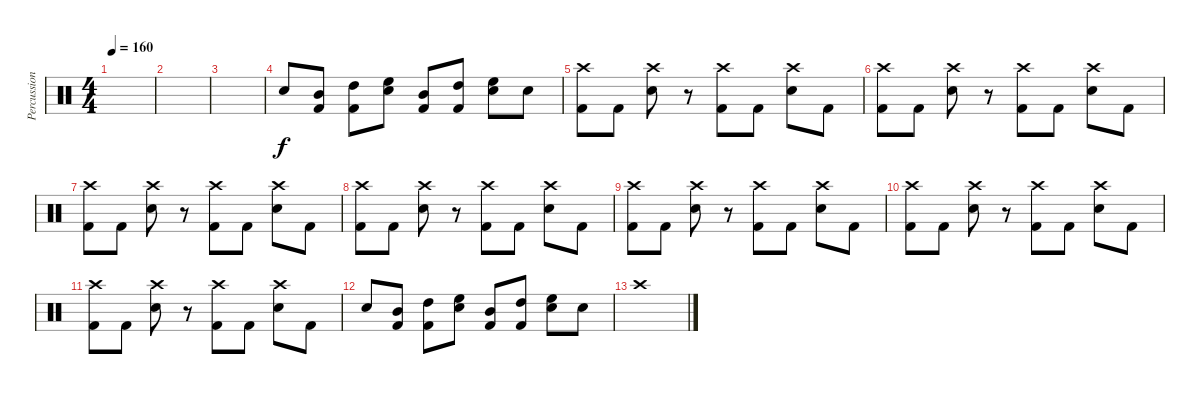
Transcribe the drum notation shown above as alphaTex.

\track ("Percussion" "Percussion") {instrument percussion}
\staff {score}
\articulation defaults
\ts (4 4)
\tempo 160
\clef neutral
\ks c
|
|
|
"Snare (hit) 2".8 ("Mid Tom (hit)" "Kick (hit) 2").8 ("High Tom (hit)" "Kick (hit) 2").8 ("High Floor Tom (hit)" "Snare (hit) 2").8 ("Mid Tom (hit)" "Kick (hit) 2").8 ("High Tom (hit)" "Kick (hit) 2").8 ("High Floor Tom (hit)" "Snare (hit) 2").8 "Snare (hit) 2".8 |
("Crash high (hit)" "Kick (hit) 2").8 "Kick (hit) 2".8 ("Crash high (hit)" "Snare (hit) 2").8 r.8 ("Crash high (hit)" "Kick (hit) 2").8 "Kick (hit) 2".8 ("Crash high (hit)" "Snare (hit) 2").8 "Kick (hit) 2".8 |
("Crash high (hit)" "Kick (hit) 2").8 "Kick (hit) 2".8 ("Crash high (hit)" "Snare (hit) 2").8 r.8 ("Crash high (hit)" "Kick (hit) 2").8 "Kick (hit) 2".8 ("Crash high (hit)" "Snare (hit) 2").8 "Kick (hit) 2".8 |
("Crash high (hit)" "Kick (hit) 2").8 "Kick (hit) 2".8 ("Crash high (hit)" "Snare (hit) 2").8 r.8 ("Crash high (hit)" "Kick (hit) 2").8 "Kick (hit) 2".8 ("Crash high (hit)" "Snare (hit) 2").8 "Kick (hit) 2".8 |
("Crash high (hit)" "Kick (hit) 2").8 "Kick (hit) 2".8 ("Crash high (hit)" "Snare (hit) 2").8 r.8 ("Crash high (hit)" "Kick (hit) 2").8 "Kick (hit) 2".8 ("Crash high (hit)" "Snare (hit) 2").8 "Kick (hit) 2".8 |
("Crash high (hit)" "Kick (hit) 2").8 "Kick (hit) 2".8 ("Crash high (hit)" "Snare (hit) 2").8 r.8 ("Crash high (hit)" "Kick (hit) 2").8 "Kick (hit) 2".8 ("Crash high (hit)" "Snare (hit) 2").8 "Kick (hit) 2".8 |
("Crash high (hit)" "Kick (hit) 2").8 "Kick (hit) 2".8 ("Crash high (hit)" "Snare (hit) 2").8 r.8 ("Crash high (hit)" "Kick (hit) 2").8 "Kick (hit) 2".8 ("Crash high (hit)" "Snare (hit) 2").8 "Kick (hit) 2".8 |
("Crash high (hit)" "Kick (hit) 2").8 "Kick (hit) 2".8 ("Crash high (hit)" "Snare (hit) 2").8 r.8 ("Crash high (hit)" "Kick (hit) 2").8 "Kick (hit) 2".8 ("Crash high (hit)" "Snare (hit) 2").8 "Kick (hit) 2".8 |
"Snare (hit) 2".8 ("Mid Tom (hit)" "Kick (hit) 2").8 ("High Tom (hit)" "Kick (hit) 2").8 ("High Floor Tom (hit)" "Snare (hit) 2").8 ("Mid Tom (hit)" "Kick (hit) 2").8 ("High Tom (hit)" "Kick (hit) 2").8 ("High Floor Tom (hit)" "Snare (hit) 2").8 "Snare (hit) 2".8 |
"Crash high (hit)".1
